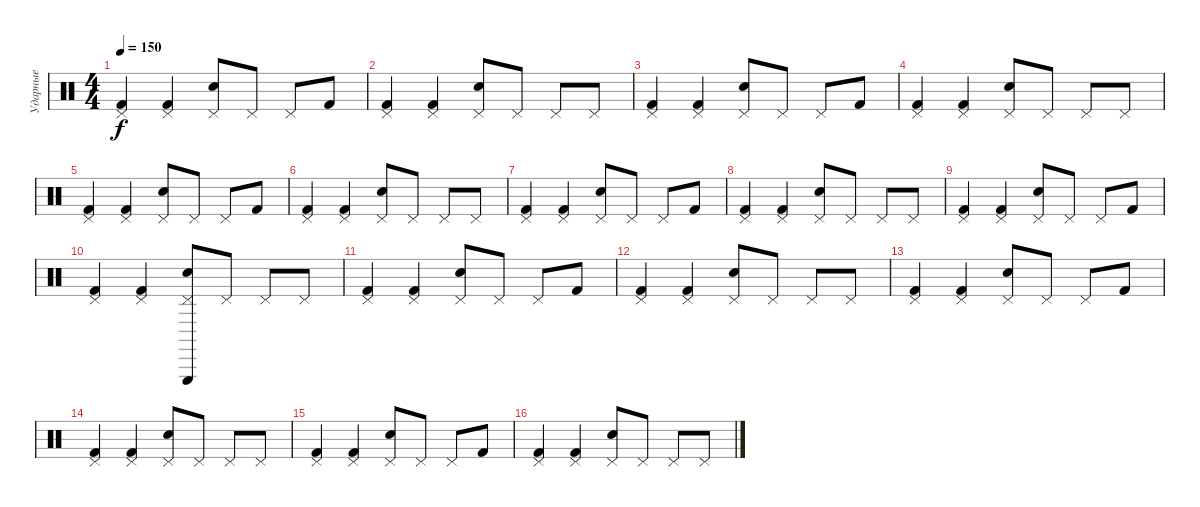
\track ("Ударные" "Ударные") {instrument percussion}
\staff {score}
\articulation defaults
\ts (4 4)
\tempo 150
\clef neutral
\ks c
("Pedal Hi-Hat (hit)" "Kick (hit) 2").4{dy f} ("Pedal Hi-Hat (hit)" "Kick (hit) 2").4 ("Pedal Hi-Hat (hit)" "Snare (hit) 2").8 "Pedal Hi-Hat (hit)".8 "Pedal Hi-Hat (hit)".8 "Kick (hit) 2".8 |
("Pedal Hi-Hat (hit)" "Kick (hit) 2").4 ("Pedal Hi-Hat (hit)" "Kick (hit) 2").4 ("Pedal Hi-Hat (hit)" "Snare (hit) 2").8 "Pedal Hi-Hat (hit)".8 "Pedal Hi-Hat (hit)".8 "Pedal Hi-Hat (hit)".8 |
("Pedal Hi-Hat (hit)" "Kick (hit) 2").4 ("Pedal Hi-Hat (hit)" "Kick (hit) 2").4 ("Pedal Hi-Hat (hit)" "Snare (hit) 2").8 "Pedal Hi-Hat (hit)".8 "Pedal Hi-Hat (hit)".8 "Kick (hit) 2".8 |
("Pedal Hi-Hat (hit)" "Kick (hit) 2").4 ("Pedal Hi-Hat (hit)" "Kick (hit) 2").4 ("Pedal Hi-Hat (hit)" "Snare (hit) 2").8 "Pedal Hi-Hat (hit)".8 "Pedal Hi-Hat (hit)".8 "Pedal Hi-Hat (hit)".8 |
("Pedal Hi-Hat (hit)" "Kick (hit) 2").4 ("Pedal Hi-Hat (hit)" "Kick (hit) 2").4 ("Pedal Hi-Hat (hit)" "Snare (hit) 2").8 "Pedal Hi-Hat (hit)".8 "Pedal Hi-Hat (hit)".8 "Kick (hit) 2".8 |
("Pedal Hi-Hat (hit)" "Kick (hit) 2").4 ("Pedal Hi-Hat (hit)" "Kick (hit) 2").4 ("Pedal Hi-Hat (hit)" "Snare (hit) 2").8 "Pedal Hi-Hat (hit)".8 "Pedal Hi-Hat (hit)".8 "Pedal Hi-Hat (hit)".8 |
("Pedal Hi-Hat (hit)" "Kick (hit) 2").4 ("Pedal Hi-Hat (hit)" "Kick (hit) 2").4 ("Pedal Hi-Hat (hit)" "Snare (hit) 2").8 "Pedal Hi-Hat (hit)".8 "Pedal Hi-Hat (hit)".8 "Kick (hit) 2".8 |
("Pedal Hi-Hat (hit)" "Kick (hit) 2").4 ("Pedal Hi-Hat (hit)" "Kick (hit) 2").4 ("Pedal Hi-Hat (hit)" "Snare (hit) 2").8 "Pedal Hi-Hat (hit)".8 "Pedal Hi-Hat (hit)".8 "Pedal Hi-Hat (hit)".8 |
("Pedal Hi-Hat (hit)" "Kick (hit) 2").4 ("Pedal Hi-Hat (hit)" "Kick (hit) 2").4 ("Pedal Hi-Hat (hit)" "Snare (hit) 2").8 "Pedal Hi-Hat (hit)".8 "Pedal Hi-Hat (hit)".8 "Kick (hit) 2".8 |
("Pedal Hi-Hat (hit)" "Kick (hit) 2").4 ("Pedal Hi-Hat (hit)" "Kick (hit) 2").4 ("Triangle (hit)" "Pedal Hi-Hat (hit)" "Snare (hit) 2").8 "Pedal Hi-Hat (hit)".8 "Pedal Hi-Hat (hit)".8 "Pedal Hi-Hat (hit)".8 |
("Pedal Hi-Hat (hit)" "Kick (hit) 2").4 ("Pedal Hi-Hat (hit)" "Kick (hit) 2").4 ("Pedal Hi-Hat (hit)" "Snare (hit) 2").8 "Pedal Hi-Hat (hit)".8 "Pedal Hi-Hat (hit)".8 "Kick (hit) 2".8 |
("Pedal Hi-Hat (hit)" "Kick (hit) 2").4 ("Pedal Hi-Hat (hit)" "Kick (hit) 2").4 ("Pedal Hi-Hat (hit)" "Snare (hit) 2").8 "Pedal Hi-Hat (hit)".8 "Pedal Hi-Hat (hit)".8 "Pedal Hi-Hat (hit)".8 |
("Pedal Hi-Hat (hit)" "Kick (hit) 2").4 ("Pedal Hi-Hat (hit)" "Kick (hit) 2").4 ("Pedal Hi-Hat (hit)" "Snare (hit) 2").8 "Pedal Hi-Hat (hit)".8 "Pedal Hi-Hat (hit)".8 "Kick (hit) 2".8 |
("Pedal Hi-Hat (hit)" "Kick (hit) 2").4 ("Pedal Hi-Hat (hit)" "Kick (hit) 2").4 ("Pedal Hi-Hat (hit)" "Snare (hit) 2").8 "Pedal Hi-Hat (hit)".8 "Pedal Hi-Hat (hit)".8 "Pedal Hi-Hat (hit)".8 |
("Pedal Hi-Hat (hit)" "Kick (hit) 2").4 ("Pedal Hi-Hat (hit)" "Kick (hit) 2").4 ("Pedal Hi-Hat (hit)" "Snare (hit) 2").8 "Pedal Hi-Hat (hit)".8 "Pedal Hi-Hat (hit)".8 "Kick (hit) 2".8 |
("Pedal Hi-Hat (hit)" "Kick (hit) 2").4 ("Pedal Hi-Hat (hit)" "Kick (hit) 2").4 ("Pedal Hi-Hat (hit)" "Snare (hit) 2").8 "Pedal Hi-Hat (hit)".8 "Pedal Hi-Hat (hit)".8 "Pedal Hi-Hat (hit)".8
